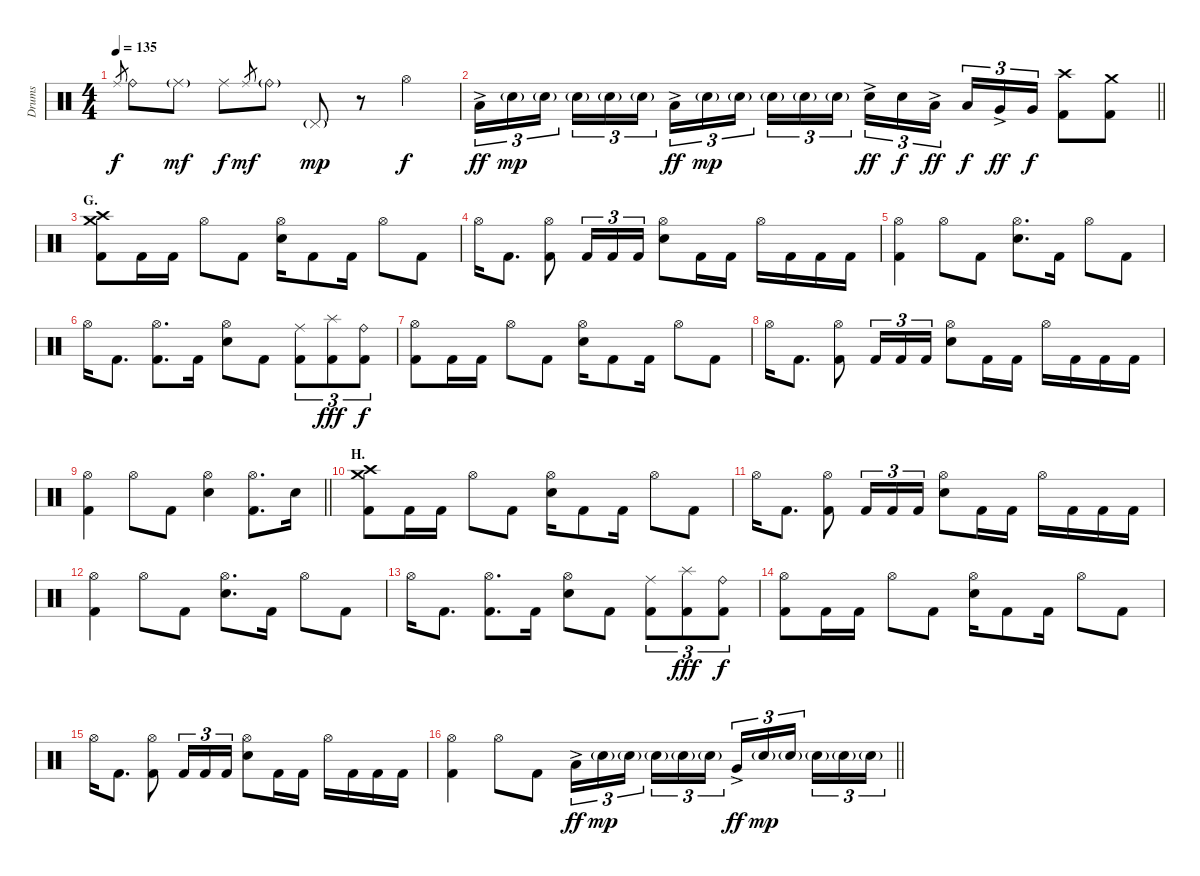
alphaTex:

\track ("Drums" "Drums") {instrument percussion}
\staff {score}
\articulation defaults
\ts (4 4)
\tempo 135
\clef neutral
\ks c "Ride (middle)".8{gr dy f} "Ride (bell)".8 "Ride (middle)"{g}.8{dy mf} "Ride (middle)".8{dy f} "Ride (middle)".8{gr dy mf} "Ride (bell)"{g}.8 "Pedal Hi-Hat (hit)"{g}.8{dy mp}
r.8 "Hi-Hat (open)".4{dy f} |
\barLineRight lightlight "Low Floor Tom (hit)"{ac}.16{tu (3 2) dy ff} "Electric Snare (hit)"{g}.16{tu (3 2) dy mp} "Electric Snare (hit)"{g}.16{tu (3 2) beam splitsecondary} "Electric Snare (hit)"{g}.16{tu (3 2)} "Electric Snare (hit)"{g}.16{tu (3 2)} "Electric Snare (hit)"{g}.16{tu (3 2)} "Low Tom (hit)"{ac}.16{tu (3 2) dy ff} "Electric Snare (hit)"{g}.16{tu (3 2) dy mp} "Electric Snare (hit)"{g}.16{tu (3 2) beam splitsecondary} "Electric Snare (hit)"{g}.16{tu (3 2)} "Electric Snare (hit)"{g}.16{tu (3 2)} "Electric Snare (hit)"{g}.16{tu (3 2)} "Electric Snare (hit)"{ac}.16{tu (3 2) dy ff} "Electric Snare (hit)".16{tu (3 2) dy f} "Low Tom (hit)"{ac}.16{tu (3 2) dy ff beam splitsecondary} "Low Tom (hit)".16{tu (3 2) dy f} "Very Low Tom (hit)"{ac}.16{tu (3 2) dy ff} "Very Low Tom (hit)".16{tu (3 2) dy f}
("Crash high (hit)" "Kick (hit) 2").8 ("Crash medium (hit)" "Kick (hit) 2").8 |
\section ("" "G.")
("Crash medium (hit)" "Crash high (hit)" "Kick (hit) 2").8 "Kick (hit) 2".16 "Kick (hit) 2".16 "Hi-Hat (open)".8 "Kick (hit) 2".8 ("Hi-Hat (open)" "Electric Snare (hit)").16 "Kick (hit) 2".8 "Kick (hit) 2".16 "Hi-Hat (open)".8 "Kick (hit) 2".8 |
"Hi-Hat (open)".16 "Kick (hit) 2".8{d} ("Hi-Hat (open)" "Kick (hit) 2").8 "Kick (hit) 2".16{tu (3 2)} "Kick (hit) 2".16{tu (3 2)} "Kick (hit) 2".16{tu (3 2)} ("Hi-Hat (open)" "Electric Snare (hit)").8 "Kick (hit) 2".16 "Kick (hit) 2".16 "Hi-Hat (open)".16 "Kick (hit) 2".16 "Kick (hit) 2".16 "Kick (hit) 2".16 |
("Hi-Hat (open)" "Kick (hit) 2").4 "Hi-Hat (open)".8 "Kick (hit) 2".8 ("Hi-Hat (open)" "Electric Snare (hit)").8{d} "Kick (hit) 2".16 "Hi-Hat (open)".8 "Kick (hit) 2".8 |
"Hi-Hat (open)".16 "Kick (hit) 2".8{d} ("Hi-Hat (open)" "Kick (hit) 2").8{d} "Kick (hit) 2".16 ("Hi-Hat (open)" "Electric Snare (hit)").8 "Kick (hit) 2".8 ("Ride (middle)" "Kick (hit) 2").8{tu (3 2)} ("Splash (hit)" "Kick (hit) 2").8{tu (3 2) dy fff} ("Ride (bell)" "Kick (hit) 2").8{tu (3 2) dy f} |
("Hi-Hat (open)" "Kick (hit) 2").8 "Kick (hit) 2".16 "Kick (hit) 2".16 "Hi-Hat (open)".8 "Kick (hit) 2".8 ("Hi-Hat (open)" "Electric Snare (hit)").16 "Kick (hit) 2".8 "Kick (hit) 2".16 "Hi-Hat (open)".8 "Kick (hit) 2".8 |
"Hi-Hat (open)".16 "Kick (hit) 2".8{d} ("Hi-Hat (open)" "Kick (hit) 2").8 "Kick (hit) 2".16{tu (3 2)} "Kick (hit) 2".16{tu (3 2)} "Kick (hit) 2".16{tu (3 2)} ("Hi-Hat (open)" "Electric Snare (hit)").8 "Kick (hit) 2".16 "Kick (hit) 2".16 "Hi-Hat (open)".16 "Kick (hit) 2".16 "Kick (hit) 2".16 "Kick (hit) 2".16 |
\barLineRight lightlight
("Hi-Hat (open)" "Kick (hit) 2").4 "Hi-Hat (open)".8 "Kick (hit) 2".8 ("Hi-Hat (open)" "Electric Snare (hit)").4 ("Hi-Hat (open)" "Kick (hit) 2").8{d} "Electric Snare (hit)".16 |
\section ("" "H.")
("Crash medium (hit)" "Crash high (hit)" "Kick (hit) 2").8 "Kick (hit) 2".16 "Kick (hit) 2".16 "Hi-Hat (open)".8 "Kick (hit) 2".8 ("Hi-Hat (open)" "Electric Snare (hit)").16 "Kick (hit) 2".8 "Kick (hit) 2".16 "Hi-Hat (open)".8 "Kick (hit) 2".8 |
"Hi-Hat (open)".16 "Kick (hit) 2".8{d} ("Hi-Hat (open)" "Kick (hit) 2").8 "Kick (hit) 2".16{tu (3 2)} "Kick (hit) 2".16{tu (3 2)} "Kick (hit) 2".16{tu (3 2)} ("Hi-Hat (open)" "Electric Snare (hit)").8 "Kick (hit) 2".16 "Kick (hit) 2".16 "Hi-Hat (open)".16 "Kick (hit) 2".16 "Kick (hit) 2".16 "Kick (hit) 2".16 |
("Hi-Hat (open)" "Kick (hit) 2").4 "Hi-Hat (open)".8 "Kick (hit) 2".8 ("Hi-Hat (open)" "Electric Snare (hit)").8{d} "Kick (hit) 2".16 "Hi-Hat (open)".8 "Kick (hit) 2".8 |
"Hi-Hat (open)".16 "Kick (hit) 2".8{d} ("Hi-Hat (open)" "Kick (hit) 2").8{d} "Kick (hit) 2".16 ("Hi-Hat (open)" "Electric Snare (hit)").8 "Kick (hit) 2".8 ("Ride (middle)" "Kick (hit) 2").8{tu (3 2)} ("Splash (hit)" "Kick (hit) 2").8{tu (3 2) dy fff} ("Ride (bell)" "Kick (hit) 2").8{tu (3 2) dy f} |
("Hi-Hat (open)" "Kick (hit) 2").8 "Kick (hit) 2".16 "Kick (hit) 2".16 "Hi-Hat (open)".8 "Kick (hit) 2".8 ("Hi-Hat (open)" "Electric Snare (hit)").16 "Kick (hit) 2".8 "Kick (hit) 2".16 "Hi-Hat (open)".8 "Kick (hit) 2".8 |
"Hi-Hat (open)".16 "Kick (hit) 2".8{d} ("Hi-Hat (open)" "Kick (hit) 2").8 "Kick (hit) 2".16{tu (3 2)} "Kick (hit) 2".16{tu (3 2)} "Kick (hit) 2".16{tu (3 2)} ("Hi-Hat (open)" "Electric Snare (hit)").8 "Kick (hit) 2".16 "Kick (hit) 2".16 "Hi-Hat (open)".16 "Kick (hit) 2".16 "Kick (hit) 2".16 "Kick (hit) 2".16 |
\barLineRight lightlight
("Hi-Hat (open)" "Kick (hit) 2").4 "Hi-Hat (open)".8 "Kick (hit) 2".8 "Low Floor Tom (hit)"{ac}.16{tu (3 2) dy ff} "Electric Snare (hit)"{g}.16{tu (3 2) dy mp} "Electric Snare (hit)"{g}.16{tu (3 2) beam splitsecondary} "Electric Snare (hit)"{g}.16{tu (3 2)} "Electric Snare (hit)"{g}.16{tu (3 2)} "Electric Snare (hit)"{g}.16{tu (3 2)} "Very Low Tom (hit)"{ac}.16{tu (3 2) dy ff} "Electric Snare (hit)"{g}.16{tu (3 2) dy mp} "Electric Snare (hit)"{g}.16{tu (3 2) beam splitsecondary} "Electric Snare (hit)"{g}.16{tu (3 2)} "Electric Snare (hit)"{g}.16{tu (3 2)} "Electric Snare (hit)"{g}.16{tu (3 2)}
